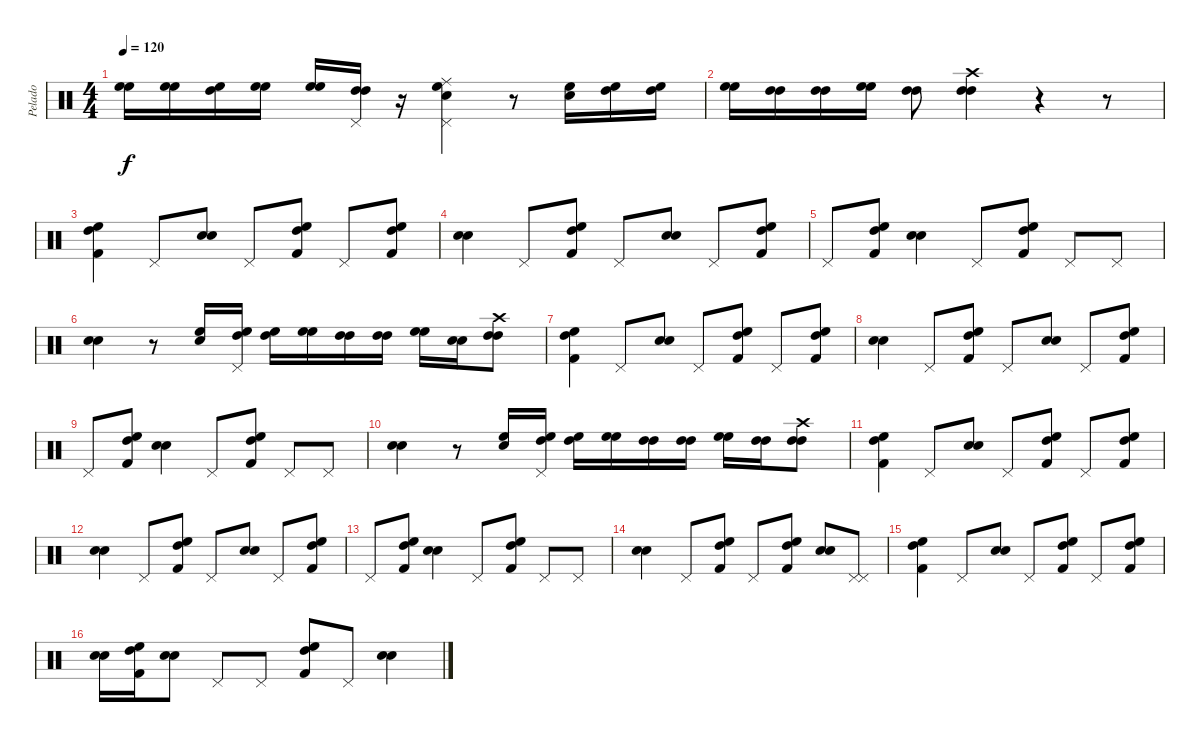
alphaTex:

\track ("Pelado" "Pelado") {instrument percussion}
\staff {score}
\articulation defaults
\ts (4 4)
\tempo 120
\clef neutral
\ks c
("High Floor Tom (hit)" "High Floor Tom (hit)").16{dy f} ("High Floor Tom (hit)" "High Floor Tom (hit)").16 ("High Floor Tom (hit)" "High Tom (hit)").16 ("High Floor Tom (hit)" "High Floor Tom (hit)").16 ("High Floor Tom (hit)" "High Floor Tom (hit)").16 ("Pedal Hi-Hat (hit)" "High Tom (hit)" "High Tom (hit)").16 r.16 ("Ride (middle)" "Pedal Hi-Hat (hit)" "Snare (hit) 2" "High Floor Tom (hit)").4 r.8 ("High Floor Tom (hit)" "Snare (hit) 2").16 ("High Floor Tom (hit)" "High Tom (hit)").16 ("High Floor Tom (hit)" "High Tom (hit)").16 |
("High Floor Tom (hit)" "High Floor Tom (hit)").16 ("High Tom (hit)" "High Tom (hit)").16 ("High Tom (hit)" "High Tom (hit)").16 ("High Floor Tom (hit)" "High Floor Tom (hit)").16 ("High Tom (hit)" "High Tom (hit)").8 ("Crash high (hit)" "High Tom (hit)" "High Tom (hit)").4 r.4 r.8 |
("Kick (hit) 2" "High Floor Tom (hit)" "High Tom (hit)").4 "Pedal Hi-Hat (hit)".8 ("Electric Snare (hit)" "Electric Snare (hit)").8 "Pedal Hi-Hat (hit)".8 ("Kick (hit) 2" "High Floor Tom (hit)" "High Tom (hit)").8 "Pedal Hi-Hat (hit)".8 ("Kick (hit) 2" "High Floor Tom (hit)" "High Tom (hit)").8 |
("Electric Snare (hit)" "Electric Snare (hit)").4 "Pedal Hi-Hat (hit)".8 ("Kick (hit) 2" "High Floor Tom (hit)" "High Tom (hit)").8 "Pedal Hi-Hat (hit)".8 ("Electric Snare (hit)" "Electric Snare (hit)").8 "Pedal Hi-Hat (hit)".8 ("Kick (hit) 2" "High Floor Tom (hit)" "High Tom (hit)").8 |
"Pedal Hi-Hat (hit)".8 ("Kick (hit) 2" "High Floor Tom (hit)" "High Tom (hit)").8 ("Electric Snare (hit)" "Electric Snare (hit)").4 "Pedal Hi-Hat (hit)".8 ("Kick (hit) 2" "High Floor Tom (hit)" "High Tom (hit)").8 "Pedal Hi-Hat (hit)".8 "Pedal Hi-Hat (hit)".8 |
("Electric Snare (hit)" "Electric Snare (hit)").4 r.8 ("High Floor Tom (hit)" "Snare (hit) 2").16 ("Pedal Hi-Hat (hit)" "High Floor Tom (hit)" "High Tom (hit)").16 ("High Floor Tom (hit)" "High Tom (hit)").16 ("High Floor Tom (hit)" "High Floor Tom (hit)").16 ("High Tom (hit)" "High Tom (hit)").16 ("High Tom (hit)" "High Tom (hit)").16 ("High Floor Tom (hit)" "High Floor Tom (hit)").16 ("Electric Snare (hit)" "Electric Snare (hit)").16 ("Crash high (hit)" "High Tom (hit)" "High Tom (hit)").8 |
("Kick (hit) 2" "High Floor Tom (hit)" "High Tom (hit)").4 "Pedal Hi-Hat (hit)".8 ("Electric Snare (hit)" "Electric Snare (hit)").8 "Pedal Hi-Hat (hit)".8 ("Kick (hit) 2" "High Floor Tom (hit)" "High Tom (hit)").8 "Pedal Hi-Hat (hit)".8 ("Kick (hit) 2" "High Floor Tom (hit)" "High Tom (hit)").8 |
("Electric Snare (hit)" "Electric Snare (hit)").4 "Pedal Hi-Hat (hit)".8 ("Kick (hit) 2" "High Floor Tom (hit)" "High Tom (hit)").8 "Pedal Hi-Hat (hit)".8 ("Electric Snare (hit)" "Electric Snare (hit)").8 "Pedal Hi-Hat (hit)".8 ("Kick (hit) 2" "High Floor Tom (hit)" "High Tom (hit)").8 |
"Pedal Hi-Hat (hit)".8 ("Kick (hit) 2" "High Floor Tom (hit)" "High Tom (hit)").8 ("Electric Snare (hit)" "Electric Snare (hit)").4 "Pedal Hi-Hat (hit)".8 ("Kick (hit) 2" "High Floor Tom (hit)" "High Tom (hit)").8 "Pedal Hi-Hat (hit)".8 "Pedal Hi-Hat (hit)".8 |
("Electric Snare (hit)" "Electric Snare (hit)").4 r.8 ("High Floor Tom (hit)" "Snare (hit) 2").16 ("Pedal Hi-Hat (hit)" "High Floor Tom (hit)" "High Tom (hit)").16 ("High Floor Tom (hit)" "High Tom (hit)").16 ("High Floor Tom (hit)" "High Floor Tom (hit)").16 ("High Tom (hit)" "High Tom (hit)").16 ("High Tom (hit)" "High Tom (hit)").16 ("High Floor Tom (hit)" "High Floor Tom (hit)").16 ("High Tom (hit)" "High Tom (hit)").16 ("Crash high (hit)" "High Tom (hit)" "High Tom (hit)").8 |
("Kick (hit) 2" "High Floor Tom (hit)" "High Tom (hit)").4 "Pedal Hi-Hat (hit)".8 ("Electric Snare (hit)" "Electric Snare (hit)").8 "Pedal Hi-Hat (hit)".8 ("Kick (hit) 2" "High Floor Tom (hit)" "High Tom (hit)").8 "Pedal Hi-Hat (hit)".8 ("Kick (hit) 2" "High Floor Tom (hit)" "High Tom (hit)").8 |
("Electric Snare (hit)" "Electric Snare (hit)").4 "Pedal Hi-Hat (hit)".8 ("Kick (hit) 2" "High Floor Tom (hit)" "High Tom (hit)").8 "Pedal Hi-Hat (hit)".8 ("Electric Snare (hit)" "Electric Snare (hit)").8 "Pedal Hi-Hat (hit)".8 ("Kick (hit) 2" "High Floor Tom (hit)" "High Tom (hit)").8 |
"Pedal Hi-Hat (hit)".8 ("Kick (hit) 2" "High Floor Tom (hit)" "High Tom (hit)").8 ("Electric Snare (hit)" "Electric Snare (hit)").4 "Pedal Hi-Hat (hit)".8 ("Kick (hit) 2" "High Floor Tom (hit)" "High Tom (hit)").8 "Pedal Hi-Hat (hit)".8 "Pedal Hi-Hat (hit)".8 |
("Electric Snare (hit)" "Electric Snare (hit)").4 "Pedal Hi-Hat (hit)".8 ("Kick (hit) 2" "High Floor Tom (hit)" "High Tom (hit)").8 "Pedal Hi-Hat (hit)".8 ("Kick (hit) 2" "High Floor Tom (hit)" "High Tom (hit)").8 ("Electric Snare (hit)" "Electric Snare (hit)").8 ("Pedal Hi-Hat (hit)" "Pedal Hi-Hat (hit)").8 |
("Kick (hit) 2" "High Floor Tom (hit)" "High Tom (hit)").4 "Pedal Hi-Hat (hit)".8 ("Electric Snare (hit)" "Electric Snare (hit)").8 "Pedal Hi-Hat (hit)".8 ("Kick (hit) 2" "High Floor Tom (hit)" "High Tom (hit)").8 "Pedal Hi-Hat (hit)".8 ("Kick (hit) 2" "High Floor Tom (hit)" "High Tom (hit)").8 |
("Electric Snare (hit)" "Electric Snare (hit)").16 ("Kick (hit) 2" "High Floor Tom (hit)" "High Tom (hit)").16 ("Electric Snare (hit)" "Electric Snare (hit)").8 "Pedal Hi-Hat (hit)".8 "Pedal Hi-Hat (hit)".8 ("Kick (hit) 2" "High Floor Tom (hit)" "High Tom (hit)").8 "Pedal Hi-Hat (hit)".8 ("Electric Snare (hit)" "Electric Snare (hit)").4
